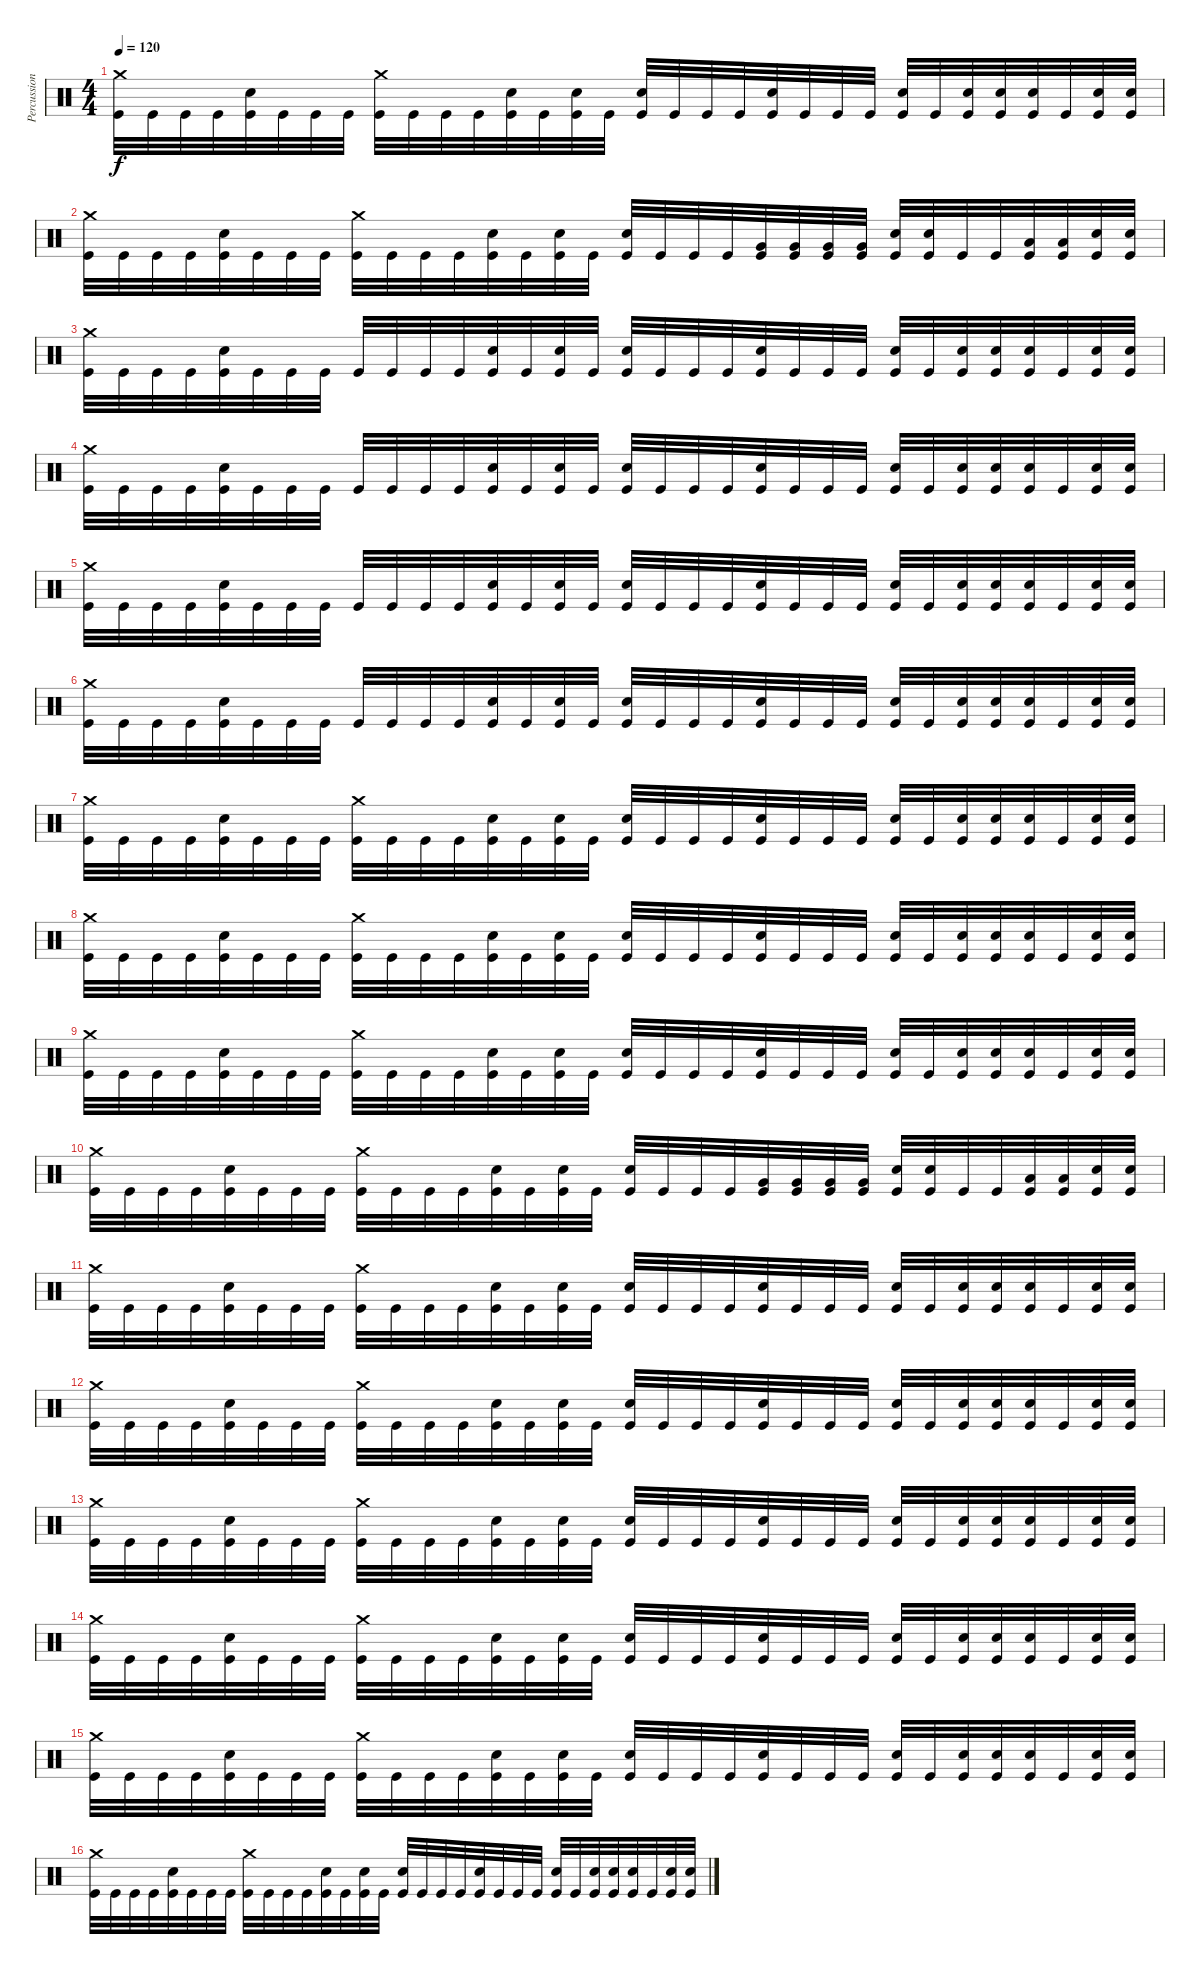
\track ("Percussion" "Percussion") {instrument percussion}
\staff {score}
\articulation defaults
\ts (4 4)
\tempo 120
\clef neutral
\ks c
("Crash medium (hit)" "Kick (hit)").32{dy f} "Kick (hit)".32 "Kick (hit)".32 "Kick (hit)".32 ("Electric Snare (hit)" "Kick (hit)").32 "Kick (hit)".32 "Kick (hit)".32 "Kick (hit)".32 ("Crash medium (hit)" "Kick (hit)").32 "Kick (hit)".32 "Kick (hit)".32 "Kick (hit)".32 ("Electric Snare (hit)" "Kick (hit)").32 "Kick (hit)".32 ("Electric Snare (hit)" "Kick (hit)").32 "Kick (hit)".32 ("Electric Snare (hit)" "Kick (hit)").32 "Kick (hit)".32 "Kick (hit)".32 "Kick (hit)".32 ("Electric Snare (hit)" "Kick (hit)").32 "Kick (hit)".32 "Kick (hit)".32 "Kick (hit)".32 ("Electric Snare (hit)" "Kick (hit)").32 "Kick (hit)".32 ("Electric Snare (hit)" "Kick (hit)").32 ("Electric Snare (hit)" "Kick (hit)").32 ("Electric Snare (hit)" "Kick (hit)").32 "Kick (hit)".32 ("Electric Snare (hit)" "Kick (hit)").32 ("Electric Snare (hit)" "Kick (hit)").32 |
("Crash medium (hit)" "Kick (hit)").32 "Kick (hit)".32 "Kick (hit)".32 "Kick (hit)".32 ("Electric Snare (hit)" "Kick (hit)").32 "Kick (hit)".32 "Kick (hit)".32 "Kick (hit)".32 ("Crash medium (hit)" "Kick (hit)").32 "Kick (hit)".32 "Kick (hit)".32 "Kick (hit)".32 ("Electric Snare (hit)" "Kick (hit)").32 "Kick (hit)".32 ("Electric Snare (hit)" "Kick (hit)").32 "Kick (hit)".32 ("Electric Snare (hit)" "Kick (hit)").32 "Kick (hit)".32 "Kick (hit)".32 "Kick (hit)".32 ("Very Low Tom (hit)" "Kick (hit)").32 ("Very Low Tom (hit)" "Kick (hit)").32 ("Very Low Tom (hit)" "Kick (hit)").32 ("Very Low Tom (hit)" "Kick (hit)").32 ("Snare (hit) 2" "Kick (hit)").32 ("Snare (hit) 2" "Kick (hit)").32 "Kick (hit)".32 "Kick (hit)".32 ("Low Floor Tom (hit)" "Kick (hit)").32 ("Low Floor Tom (hit)" "Kick (hit)").32 ("Electric Snare (hit)" "Kick (hit)").32 ("Electric Snare (hit)" "Kick (hit)").32 |
("Crash medium (hit)" "Kick (hit)").32 "Kick (hit)".32 "Kick (hit)".32 "Kick (hit)".32 ("Electric Snare (hit)" "Kick (hit)").32 "Kick (hit)".32 "Kick (hit)".32 "Kick (hit)".32 "Kick (hit)".32 "Kick (hit)".32 "Kick (hit)".32 "Kick (hit)".32 ("Electric Snare (hit)" "Kick (hit)").32 "Kick (hit)".32 ("Electric Snare (hit)" "Kick (hit)").32 "Kick (hit)".32 ("Electric Snare (hit)" "Kick (hit)").32 "Kick (hit)".32 "Kick (hit)".32 "Kick (hit)".32 ("Electric Snare (hit)" "Kick (hit)").32 "Kick (hit)".32 "Kick (hit)".32 "Kick (hit)".32 ("Electric Snare (hit)" "Kick (hit)").32 "Kick (hit)".32 ("Electric Snare (hit)" "Kick (hit)").32 ("Electric Snare (hit)" "Kick (hit)").32 ("Electric Snare (hit)" "Kick (hit)").32 "Kick (hit)".32 ("Electric Snare (hit)" "Kick (hit)").32 ("Electric Snare (hit)" "Kick (hit)").32 |
("Crash medium (hit)" "Kick (hit)").32 "Kick (hit)".32 "Kick (hit)".32 "Kick (hit)".32 ("Electric Snare (hit)" "Kick (hit)").32 "Kick (hit)".32 "Kick (hit)".32 "Kick (hit)".32 "Kick (hit)".32 "Kick (hit)".32 "Kick (hit)".32 "Kick (hit)".32 ("Electric Snare (hit)" "Kick (hit)").32 "Kick (hit)".32 ("Electric Snare (hit)" "Kick (hit)").32 "Kick (hit)".32 ("Electric Snare (hit)" "Kick (hit)").32 "Kick (hit)".32 "Kick (hit)".32 "Kick (hit)".32 ("Electric Snare (hit)" "Kick (hit)").32 "Kick (hit)".32 "Kick (hit)".32 "Kick (hit)".32 ("Electric Snare (hit)" "Kick (hit)").32 "Kick (hit)".32 ("Electric Snare (hit)" "Kick (hit)").32 ("Electric Snare (hit)" "Kick (hit)").32 ("Electric Snare (hit)" "Kick (hit)").32 "Kick (hit)".32 ("Electric Snare (hit)" "Kick (hit)").32 ("Electric Snare (hit)" "Kick (hit)").32 |
("Crash medium (hit)" "Kick (hit)").32 "Kick (hit)".32 "Kick (hit)".32 "Kick (hit)".32 ("Electric Snare (hit)" "Kick (hit)").32 "Kick (hit)".32 "Kick (hit)".32 "Kick (hit)".32 "Kick (hit)".32 "Kick (hit)".32 "Kick (hit)".32 "Kick (hit)".32 ("Electric Snare (hit)" "Kick (hit)").32 "Kick (hit)".32 ("Electric Snare (hit)" "Kick (hit)").32 "Kick (hit)".32 ("Electric Snare (hit)" "Kick (hit)").32 "Kick (hit)".32 "Kick (hit)".32 "Kick (hit)".32 ("Electric Snare (hit)" "Kick (hit)").32 "Kick (hit)".32 "Kick (hit)".32 "Kick (hit)".32 ("Electric Snare (hit)" "Kick (hit)").32 "Kick (hit)".32 ("Electric Snare (hit)" "Kick (hit)").32 ("Electric Snare (hit)" "Kick (hit)").32 ("Electric Snare (hit)" "Kick (hit)").32 "Kick (hit)".32 ("Electric Snare (hit)" "Kick (hit)").32 ("Electric Snare (hit)" "Kick (hit)").32 |
("Crash medium (hit)" "Kick (hit)").32 "Kick (hit)".32 "Kick (hit)".32 "Kick (hit)".32 ("Electric Snare (hit)" "Kick (hit)").32 "Kick (hit)".32 "Kick (hit)".32 "Kick (hit)".32 "Kick (hit)".32 "Kick (hit)".32 "Kick (hit)".32 "Kick (hit)".32 ("Electric Snare (hit)" "Kick (hit)").32 "Kick (hit)".32 ("Electric Snare (hit)" "Kick (hit)").32 "Kick (hit)".32 ("Electric Snare (hit)" "Kick (hit)").32 "Kick (hit)".32 "Kick (hit)".32 "Kick (hit)".32 ("Electric Snare (hit)" "Kick (hit)").32 "Kick (hit)".32 "Kick (hit)".32 "Kick (hit)".32 ("Electric Snare (hit)" "Kick (hit)").32 "Kick (hit)".32 ("Electric Snare (hit)" "Kick (hit)").32 ("Electric Snare (hit)" "Kick (hit)").32 ("Electric Snare (hit)" "Kick (hit)").32 "Kick (hit)".32 ("Electric Snare (hit)" "Kick (hit)").32 ("Electric Snare (hit)" "Kick (hit)").32 |
("Crash medium (hit)" "Kick (hit)").32 "Kick (hit)".32 "Kick (hit)".32 "Kick (hit)".32 ("Electric Snare (hit)" "Kick (hit)").32 "Kick (hit)".32 "Kick (hit)".32 "Kick (hit)".32 ("Crash medium (hit)" "Kick (hit)").32 "Kick (hit)".32 "Kick (hit)".32 "Kick (hit)".32 ("Electric Snare (hit)" "Kick (hit)").32 "Kick (hit)".32 ("Electric Snare (hit)" "Kick (hit)").32 "Kick (hit)".32 ("Electric Snare (hit)" "Kick (hit)").32 "Kick (hit)".32 "Kick (hit)".32 "Kick (hit)".32 ("Electric Snare (hit)" "Kick (hit)").32 "Kick (hit)".32 "Kick (hit)".32 "Kick (hit)".32 ("Electric Snare (hit)" "Kick (hit)").32 "Kick (hit)".32 ("Electric Snare (hit)" "Kick (hit)").32 ("Electric Snare (hit)" "Kick (hit)").32 ("Electric Snare (hit)" "Kick (hit)").32 "Kick (hit)".32 ("Electric Snare (hit)" "Kick (hit)").32 ("Electric Snare (hit)" "Kick (hit)").32 |
("Crash medium (hit)" "Kick (hit)").32 "Kick (hit)".32 "Kick (hit)".32 "Kick (hit)".32 ("Electric Snare (hit)" "Kick (hit)").32 "Kick (hit)".32 "Kick (hit)".32 "Kick (hit)".32 ("Crash medium (hit)" "Kick (hit)").32 "Kick (hit)".32 "Kick (hit)".32 "Kick (hit)".32 ("Electric Snare (hit)" "Kick (hit)").32 "Kick (hit)".32 ("Electric Snare (hit)" "Kick (hit)").32 "Kick (hit)".32 ("Electric Snare (hit)" "Kick (hit)").32 "Kick (hit)".32 "Kick (hit)".32 "Kick (hit)".32 ("Electric Snare (hit)" "Kick (hit)").32 "Kick (hit)".32 "Kick (hit)".32 "Kick (hit)".32 ("Electric Snare (hit)" "Kick (hit)").32 "Kick (hit)".32 ("Electric Snare (hit)" "Kick (hit)").32 ("Electric Snare (hit)" "Kick (hit)").32 ("Electric Snare (hit)" "Kick (hit)").32 "Kick (hit)".32 ("Electric Snare (hit)" "Kick (hit)").32 ("Electric Snare (hit)" "Kick (hit)").32 |
("Crash medium (hit)" "Kick (hit)").32 "Kick (hit)".32 "Kick (hit)".32 "Kick (hit)".32 ("Electric Snare (hit)" "Kick (hit)").32 "Kick (hit)".32 "Kick (hit)".32 "Kick (hit)".32 ("Crash medium (hit)" "Kick (hit)").32 "Kick (hit)".32 "Kick (hit)".32 "Kick (hit)".32 ("Electric Snare (hit)" "Kick (hit)").32 "Kick (hit)".32 ("Electric Snare (hit)" "Kick (hit)").32 "Kick (hit)".32 ("Electric Snare (hit)" "Kick (hit)").32 "Kick (hit)".32 "Kick (hit)".32 "Kick (hit)".32 ("Electric Snare (hit)" "Kick (hit)").32 "Kick (hit)".32 "Kick (hit)".32 "Kick (hit)".32 ("Electric Snare (hit)" "Kick (hit)").32 "Kick (hit)".32 ("Electric Snare (hit)" "Kick (hit)").32 ("Electric Snare (hit)" "Kick (hit)").32 ("Electric Snare (hit)" "Kick (hit)").32 "Kick (hit)".32 ("Electric Snare (hit)" "Kick (hit)").32 ("Electric Snare (hit)" "Kick (hit)").32 |
("Crash medium (hit)" "Kick (hit)").32 "Kick (hit)".32 "Kick (hit)".32 "Kick (hit)".32 ("Electric Snare (hit)" "Kick (hit)").32 "Kick (hit)".32 "Kick (hit)".32 "Kick (hit)".32 ("Crash medium (hit)" "Kick (hit)").32 "Kick (hit)".32 "Kick (hit)".32 "Kick (hit)".32 ("Electric Snare (hit)" "Kick (hit)").32 "Kick (hit)".32 ("Electric Snare (hit)" "Kick (hit)").32 "Kick (hit)".32 ("Electric Snare (hit)" "Kick (hit)").32 "Kick (hit)".32 "Kick (hit)".32 "Kick (hit)".32 ("Very Low Tom (hit)" "Kick (hit)").32 ("Very Low Tom (hit)" "Kick (hit)").32 ("Very Low Tom (hit)" "Kick (hit)").32 ("Very Low Tom (hit)" "Kick (hit)").32 ("Snare (hit) 2" "Kick (hit)").32 ("Snare (hit) 2" "Kick (hit)").32 "Kick (hit)".32 "Kick (hit)".32 ("Low Floor Tom (hit)" "Kick (hit)").32 ("Low Floor Tom (hit)" "Kick (hit)").32 ("Electric Snare (hit)" "Kick (hit)").32 ("Electric Snare (hit)" "Kick (hit)").32 |
("Crash medium (hit)" "Kick (hit)").32 "Kick (hit)".32 "Kick (hit)".32 "Kick (hit)".32 ("Electric Snare (hit)" "Kick (hit)").32 "Kick (hit)".32 "Kick (hit)".32 "Kick (hit)".32 ("Crash medium (hit)" "Kick (hit)").32 "Kick (hit)".32 "Kick (hit)".32 "Kick (hit)".32 ("Electric Snare (hit)" "Kick (hit)").32 "Kick (hit)".32 ("Electric Snare (hit)" "Kick (hit)").32 "Kick (hit)".32 ("Electric Snare (hit)" "Kick (hit)").32 "Kick (hit)".32 "Kick (hit)".32 "Kick (hit)".32 ("Electric Snare (hit)" "Kick (hit)").32 "Kick (hit)".32 "Kick (hit)".32 "Kick (hit)".32 ("Electric Snare (hit)" "Kick (hit)").32 "Kick (hit)".32 ("Electric Snare (hit)" "Kick (hit)").32 ("Electric Snare (hit)" "Kick (hit)").32 ("Electric Snare (hit)" "Kick (hit)").32 "Kick (hit)".32 ("Electric Snare (hit)" "Kick (hit)").32 ("Electric Snare (hit)" "Kick (hit)").32 |
("Crash medium (hit)" "Kick (hit)").32 "Kick (hit)".32 "Kick (hit)".32 "Kick (hit)".32 ("Electric Snare (hit)" "Kick (hit)").32 "Kick (hit)".32 "Kick (hit)".32 "Kick (hit)".32 ("Crash medium (hit)" "Kick (hit)").32 "Kick (hit)".32 "Kick (hit)".32 "Kick (hit)".32 ("Electric Snare (hit)" "Kick (hit)").32 "Kick (hit)".32 ("Electric Snare (hit)" "Kick (hit)").32 "Kick (hit)".32 ("Electric Snare (hit)" "Kick (hit)").32 "Kick (hit)".32 "Kick (hit)".32 "Kick (hit)".32 ("Electric Snare (hit)" "Kick (hit)").32 "Kick (hit)".32 "Kick (hit)".32 "Kick (hit)".32 ("Electric Snare (hit)" "Kick (hit)").32 "Kick (hit)".32 ("Electric Snare (hit)" "Kick (hit)").32 ("Electric Snare (hit)" "Kick (hit)").32 ("Electric Snare (hit)" "Kick (hit)").32 "Kick (hit)".32 ("Electric Snare (hit)" "Kick (hit)").32 ("Electric Snare (hit)" "Kick (hit)").32 |
("Crash medium (hit)" "Kick (hit)").32 "Kick (hit)".32 "Kick (hit)".32 "Kick (hit)".32 ("Electric Snare (hit)" "Kick (hit)").32 "Kick (hit)".32 "Kick (hit)".32 "Kick (hit)".32 ("Crash medium (hit)" "Kick (hit)").32 "Kick (hit)".32 "Kick (hit)".32 "Kick (hit)".32 ("Electric Snare (hit)" "Kick (hit)").32 "Kick (hit)".32 ("Electric Snare (hit)" "Kick (hit)").32 "Kick (hit)".32 ("Electric Snare (hit)" "Kick (hit)").32 "Kick (hit)".32 "Kick (hit)".32 "Kick (hit)".32 ("Electric Snare (hit)" "Kick (hit)").32 "Kick (hit)".32 "Kick (hit)".32 "Kick (hit)".32 ("Electric Snare (hit)" "Kick (hit)").32 "Kick (hit)".32 ("Electric Snare (hit)" "Kick (hit)").32 ("Electric Snare (hit)" "Kick (hit)").32 ("Electric Snare (hit)" "Kick (hit)").32 "Kick (hit)".32 ("Electric Snare (hit)" "Kick (hit)").32 ("Electric Snare (hit)" "Kick (hit)").32 |
("Crash medium (hit)" "Kick (hit)").32 "Kick (hit)".32 "Kick (hit)".32 "Kick (hit)".32 ("Electric Snare (hit)" "Kick (hit)").32 "Kick (hit)".32 "Kick (hit)".32 "Kick (hit)".32 ("Crash medium (hit)" "Kick (hit)").32 "Kick (hit)".32 "Kick (hit)".32 "Kick (hit)".32 ("Electric Snare (hit)" "Kick (hit)").32 "Kick (hit)".32 ("Electric Snare (hit)" "Kick (hit)").32 "Kick (hit)".32 ("Electric Snare (hit)" "Kick (hit)").32 "Kick (hit)".32 "Kick (hit)".32 "Kick (hit)".32 ("Electric Snare (hit)" "Kick (hit)").32 "Kick (hit)".32 "Kick (hit)".32 "Kick (hit)".32 ("Electric Snare (hit)" "Kick (hit)").32 "Kick (hit)".32 ("Electric Snare (hit)" "Kick (hit)").32 ("Electric Snare (hit)" "Kick (hit)").32 ("Electric Snare (hit)" "Kick (hit)").32 "Kick (hit)".32 ("Electric Snare (hit)" "Kick (hit)").32 ("Electric Snare (hit)" "Kick (hit)").32 |
("Crash medium (hit)" "Kick (hit)").32 "Kick (hit)".32 "Kick (hit)".32 "Kick (hit)".32 ("Electric Snare (hit)" "Kick (hit)").32 "Kick (hit)".32 "Kick (hit)".32 "Kick (hit)".32 ("Crash medium (hit)" "Kick (hit)").32 "Kick (hit)".32 "Kick (hit)".32 "Kick (hit)".32 ("Electric Snare (hit)" "Kick (hit)").32 "Kick (hit)".32 ("Electric Snare (hit)" "Kick (hit)").32 "Kick (hit)".32 ("Electric Snare (hit)" "Kick (hit)").32 "Kick (hit)".32 "Kick (hit)".32 "Kick (hit)".32 ("Electric Snare (hit)" "Kick (hit)").32 "Kick (hit)".32 "Kick (hit)".32 "Kick (hit)".32 ("Electric Snare (hit)" "Kick (hit)").32 "Kick (hit)".32 ("Electric Snare (hit)" "Kick (hit)").32 ("Electric Snare (hit)" "Kick (hit)").32 ("Electric Snare (hit)" "Kick (hit)").32 "Kick (hit)".32 ("Electric Snare (hit)" "Kick (hit)").32 ("Electric Snare (hit)" "Kick (hit)").32 |
("Crash medium (hit)" "Kick (hit)").32 "Kick (hit)".32 "Kick (hit)".32 "Kick (hit)".32 ("Electric Snare (hit)" "Kick (hit)").32 "Kick (hit)".32 "Kick (hit)".32 "Kick (hit)".32 ("Crash medium (hit)" "Kick (hit)").32 "Kick (hit)".32 "Kick (hit)".32 "Kick (hit)".32 ("Electric Snare (hit)" "Kick (hit)").32 "Kick (hit)".32 ("Electric Snare (hit)" "Kick (hit)").32 "Kick (hit)".32 ("Electric Snare (hit)" "Kick (hit)").32 "Kick (hit)".32 "Kick (hit)".32 "Kick (hit)".32 ("Electric Snare (hit)" "Kick (hit)").32 "Kick (hit)".32 "Kick (hit)".32 "Kick (hit)".32 ("Electric Snare (hit)" "Kick (hit)").32 "Kick (hit)".32 ("Electric Snare (hit)" "Kick (hit)").32 ("Electric Snare (hit)" "Kick (hit)").32 ("Electric Snare (hit)" "Kick (hit)").32 "Kick (hit)".32 ("Electric Snare (hit)" "Kick (hit)").32 ("Electric Snare (hit)" "Kick (hit)").32
